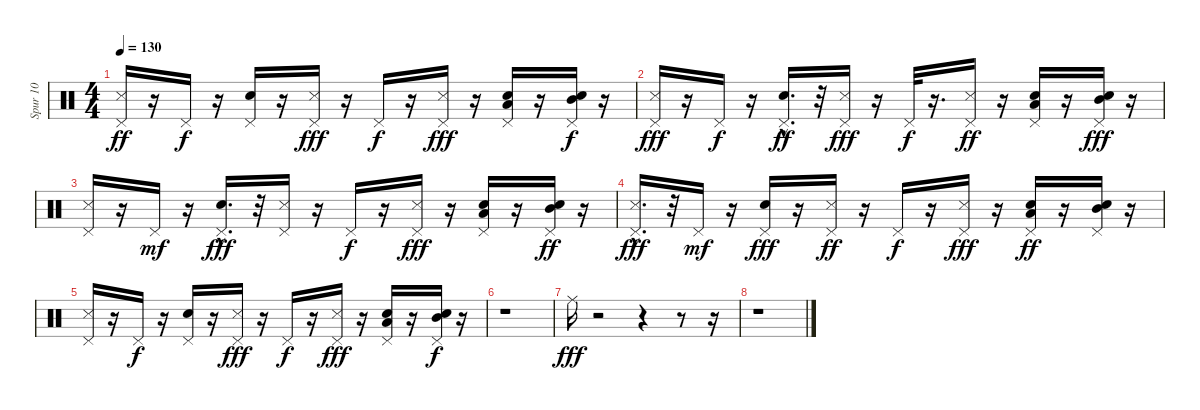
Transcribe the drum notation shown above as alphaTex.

\track ("Spur 10" "Spur 10") {instrument percussion}
\staff {score}
\articulation defaults
\ts (4 4)
\tempo 130
\clef neutral
\ks c
("Metronome (hit)" "Pedal Hi-Hat (hit)").16{dy ff} r.16 "Pedal Hi-Hat (hit)".16{dy f} r.16 ("Snare (hit) 2" "Pedal Hi-Hat (hit)").16 r.16 ("Metronome (hit)" "Pedal Hi-Hat (hit)").16{dy fff} r.16 "Pedal Hi-Hat (hit)".16{dy f} r.16 ("Metronome (hit)" "Pedal Hi-Hat (hit)").16{dy fff} r.16 ("Snare (hit) 2" "Low Tom (hit)" "Pedal Hi-Hat (hit)").16 r.16 ("Snare (hit) 2" "Mid Tom (hit)" "Pedal Hi-Hat (hit)").16{dy f} r.16 |
("Pedal Hi-Hat (hit)" "Metronome (hit)").16{dy fff} r.16 "Pedal Hi-Hat (hit)".16{dy f} r.16 ("Snare (hit) 2"{hac} "Pedal Hi-Hat (hit)").16{d dy ff} r.32 ("Metronome (hit)" "Pedal Hi-Hat (hit)").16{dy fff} r.16 "Pedal Hi-Hat (hit)".32{dy f} r.16{d} ("Metronome (hit)" "Pedal Hi-Hat (hit)").16{dy ff} r.16 ("Low Tom (hit)" "Snare (hit) 2" "Pedal Hi-Hat (hit)").16 r.16 ("Mid Tom (hit)" "Snare (hit) 2" "Pedal Hi-Hat (hit)").16{dy fff} r.16 |
("Pedal Hi-Hat (hit)" "Metronome (hit)").16 r.16 "Pedal Hi-Hat (hit)".16{dy mf} r.16 ("Pedal Hi-Hat (hit)" "Snare (hit) 2"{hac}).16{d dy fff} r.32 ("Pedal Hi-Hat (hit)" "Metronome (hit)").16 r.16 "Pedal Hi-Hat (hit)".16{dy f} r.16 ("Pedal Hi-Hat (hit)" "Metronome (hit)").16{dy fff} r.16 ("Low Tom (hit)" "Pedal Hi-Hat (hit)" "Snare (hit) 2").16 r.16 ("Mid Tom (hit)" "Pedal Hi-Hat (hit)" "Snare (hit) 2").16{dy ff} r.16 |
("Pedal Hi-Hat (hit)" "Metronome (hit)"{hac}).16{d dy fff} r.32 "Pedal Hi-Hat (hit)".16{dy mf} r.16 ("Pedal Hi-Hat (hit)" "Snare (hit) 2").16{dy fff} r.16 ("Metronome (hit)" "Pedal Hi-Hat (hit)").16{dy ff} r.16 "Pedal Hi-Hat (hit)".16{dy f} r.16 ("Metronome (hit)" "Pedal Hi-Hat (hit)").16{dy fff} r.16 ("Snare (hit) 2" "Low Tom (hit)" "Pedal Hi-Hat (hit)").16{dy ff} r.16 ("Snare (hit) 2" "Mid Tom (hit)" "Pedal Hi-Hat (hit)").16 r.16 |
("Metronome (hit)" "Pedal Hi-Hat (hit)").16 r.16 "Pedal Hi-Hat (hit)".16{dy f} r.16 ("Snare (hit) 2" "Pedal Hi-Hat (hit)").16 r.16 ("Metronome (hit)" "Pedal Hi-Hat (hit)").16{dy fff} r.16 "Pedal Hi-Hat (hit)".16{dy f} r.16 ("Metronome (hit)" "Pedal Hi-Hat (hit)").16{dy fff} r.16 ("Snare (hit) 2" "Low Tom (hit)" "Pedal Hi-Hat (hit)").16 r.16 ("Snare (hit) 2" "Mid Tom (hit)" "Pedal Hi-Hat (hit)").16{dy f} r.16 |
r.1 |
"Ride (middle)".16{dy fff} r.2 r.4 r.8 r.16 |
r.1
